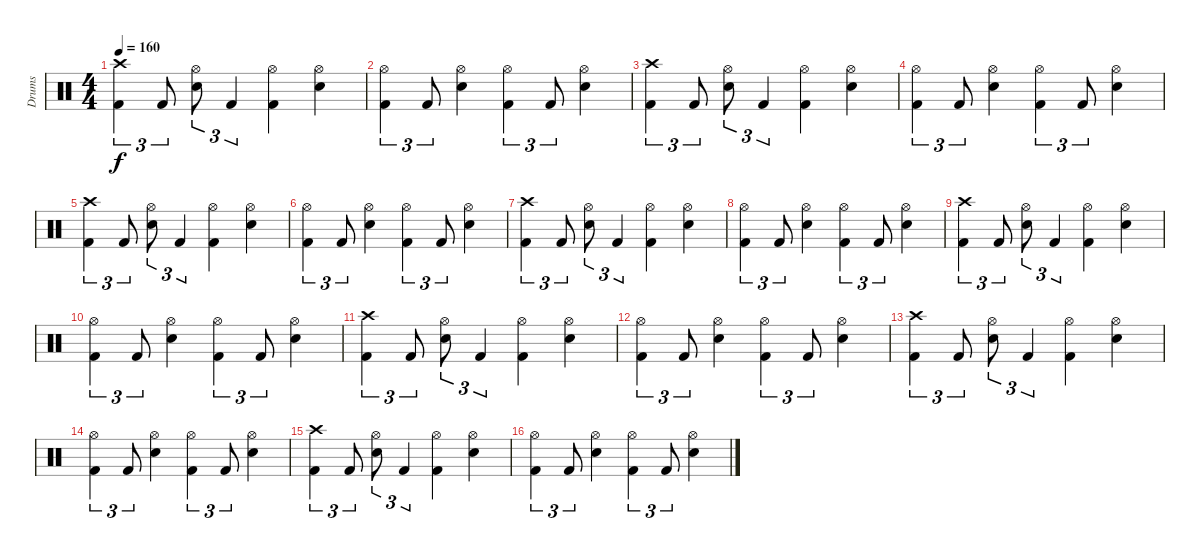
\track ("Drums" "Drums") {instrument percussion}
\staff {score}
\articulation defaults
\ts (4 4)
\tempo 160
\clef neutral
\ks c
("Crash high (hit)" "Kick (hit) 2").4{tu (3 2) dy f} "Kick (hit) 2".8{tu (3 2)} ("Hi-Hat (open)" "Snare (hit) 2").8{tu (3 2)} "Kick (hit) 2".4{tu (3 2)} ("Hi-Hat (open)" "Kick (hit) 2").4 ("Hi-Hat (open)" "Snare (hit) 2").4 |
("Hi-Hat (open)" "Kick (hit) 2").4{tu (3 2)} "Kick (hit) 2".8{tu (3 2)} ("Hi-Hat (open)" "Snare (hit) 2").4 ("Hi-Hat (open)" "Kick (hit) 2").4{tu (3 2)} "Kick (hit) 2".8{tu (3 2)} ("Hi-Hat (open)" "Snare (hit) 2").4 |
("Crash high (hit)" "Kick (hit) 2").4{tu (3 2)} "Kick (hit) 2".8{tu (3 2)} ("Hi-Hat (open)" "Snare (hit) 2").8{tu (3 2)} "Kick (hit) 2".4{tu (3 2)} ("Hi-Hat (open)" "Kick (hit) 2").4 ("Hi-Hat (open)" "Snare (hit) 2").4 |
("Hi-Hat (open)" "Kick (hit) 2").4{tu (3 2)} "Kick (hit) 2".8{tu (3 2)} ("Hi-Hat (open)" "Snare (hit) 2").4 ("Hi-Hat (open)" "Kick (hit) 2").4{tu (3 2)} "Kick (hit) 2".8{tu (3 2)} ("Hi-Hat (open)" "Snare (hit) 2").4 |
("Crash high (hit)" "Kick (hit) 2").4{tu (3 2)} "Kick (hit) 2".8{tu (3 2)} ("Hi-Hat (open)" "Snare (hit) 2").8{tu (3 2)} "Kick (hit) 2".4{tu (3 2)} ("Hi-Hat (open)" "Kick (hit) 2").4 ("Hi-Hat (open)" "Snare (hit) 2").4 |
("Hi-Hat (open)" "Kick (hit) 2").4{tu (3 2)} "Kick (hit) 2".8{tu (3 2)} ("Hi-Hat (open)" "Snare (hit) 2").4 ("Hi-Hat (open)" "Kick (hit) 2").4{tu (3 2)} "Kick (hit) 2".8{tu (3 2)} ("Hi-Hat (open)" "Snare (hit) 2").4 |
("Crash high (hit)" "Kick (hit) 2").4{tu (3 2)} "Kick (hit) 2".8{tu (3 2)} ("Hi-Hat (open)" "Snare (hit) 2").8{tu (3 2)} "Kick (hit) 2".4{tu (3 2)} ("Hi-Hat (open)" "Kick (hit) 2").4 ("Hi-Hat (open)" "Snare (hit) 2").4 |
("Hi-Hat (open)" "Kick (hit) 2").4{tu (3 2)} "Kick (hit) 2".8{tu (3 2)} ("Hi-Hat (open)" "Snare (hit) 2").4 ("Hi-Hat (open)" "Kick (hit) 2").4{tu (3 2)} "Kick (hit) 2".8{tu (3 2)} ("Hi-Hat (open)" "Snare (hit) 2").4 |
("Crash high (hit)" "Kick (hit) 2").4{tu (3 2)} "Kick (hit) 2".8{tu (3 2)} ("Hi-Hat (open)" "Snare (hit) 2").8{tu (3 2)} "Kick (hit) 2".4{tu (3 2)} ("Hi-Hat (open)" "Kick (hit) 2").4 ("Hi-Hat (open)" "Snare (hit) 2").4 |
("Hi-Hat (open)" "Kick (hit) 2").4{tu (3 2)} "Kick (hit) 2".8{tu (3 2)} ("Hi-Hat (open)" "Snare (hit) 2").4 ("Hi-Hat (open)" "Kick (hit) 2").4{tu (3 2)} "Kick (hit) 2".8{tu (3 2)} ("Hi-Hat (open)" "Snare (hit) 2").4 |
("Crash high (hit)" "Kick (hit) 2").4{tu (3 2)} "Kick (hit) 2".8{tu (3 2)} ("Hi-Hat (open)" "Snare (hit) 2").8{tu (3 2)} "Kick (hit) 2".4{tu (3 2)} ("Hi-Hat (open)" "Kick (hit) 2").4 ("Hi-Hat (open)" "Snare (hit) 2").4 |
("Hi-Hat (open)" "Kick (hit) 2").4{tu (3 2)} "Kick (hit) 2".8{tu (3 2)} ("Hi-Hat (open)" "Snare (hit) 2").4 ("Hi-Hat (open)" "Kick (hit) 2").4{tu (3 2)} "Kick (hit) 2".8{tu (3 2)} ("Hi-Hat (open)" "Snare (hit) 2").4 |
("Crash high (hit)" "Kick (hit) 2").4{tu (3 2)} "Kick (hit) 2".8{tu (3 2)} ("Hi-Hat (open)" "Snare (hit) 2").8{tu (3 2)} "Kick (hit) 2".4{tu (3 2)} ("Hi-Hat (open)" "Kick (hit) 2").4 ("Hi-Hat (open)" "Snare (hit) 2").4 |
("Hi-Hat (open)" "Kick (hit) 2").4{tu (3 2)} "Kick (hit) 2".8{tu (3 2)} ("Hi-Hat (open)" "Snare (hit) 2").4 ("Hi-Hat (open)" "Kick (hit) 2").4{tu (3 2)} "Kick (hit) 2".8{tu (3 2)} ("Hi-Hat (open)" "Snare (hit) 2").4 |
("Crash high (hit)" "Kick (hit) 2").4{tu (3 2)} "Kick (hit) 2".8{tu (3 2)} ("Hi-Hat (open)" "Snare (hit) 2").8{tu (3 2)} "Kick (hit) 2".4{tu (3 2)} ("Hi-Hat (open)" "Kick (hit) 2").4 ("Hi-Hat (open)" "Snare (hit) 2").4 |
("Hi-Hat (open)" "Kick (hit) 2").4{tu (3 2)} "Kick (hit) 2".8{tu (3 2)} ("Hi-Hat (open)" "Snare (hit) 2").4 ("Hi-Hat (open)" "Kick (hit) 2").4{tu (3 2)} "Kick (hit) 2".8{tu (3 2)} ("Hi-Hat (open)" "Snare (hit) 2").4
